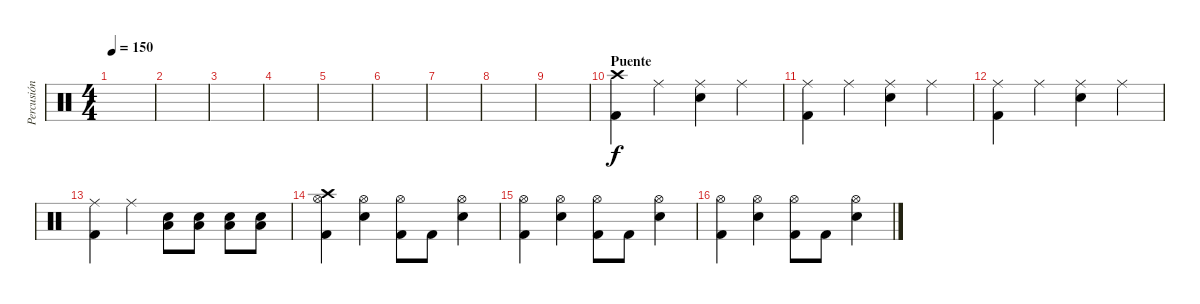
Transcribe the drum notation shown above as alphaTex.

\track ("Percusión" "Percusión") {instrument percussion}
\staff {score}
\articulation defaults
\ts (4 4)
\tempo 150
\clef neutral
\ks c
|
|
|
|
|
|
|
|
|
\section ("" "Puente")
("Crash high (hit)" "Kick (hit) 2").4 "Ride (middle)".4 ("Ride (middle)" "Snare (hit) 2").4 "Ride (middle)".4 |
("Ride (middle)" "Kick (hit) 2").4 "Ride (middle)".4 ("Ride (middle)" "Snare (hit) 2").4 "Ride (middle)".4 |
("Ride (middle)" "Kick (hit) 2").4 "Ride (middle)".4 ("Ride (middle)" "Snare (hit) 2").4 "Ride (middle)".4 |
("Ride (middle)" "Kick (hit) 2").4 "Ride (middle)".4 ("Snare (hit) 2" "Low Floor Tom (hit)").8 ("Snare (hit) 2" "Low Floor Tom (hit)").8 ("Snare (hit) 2" "Low Floor Tom (hit)").8 ("Snare (hit) 2" "Low Floor Tom (hit)").8 |
("Crash high (hit)" "Hi-Hat (open)" "Kick (hit) 2").4 ("Hi-Hat (open)" "Snare (hit) 2").4 ("Hi-Hat (open)" "Kick (hit) 2").8 "Kick (hit) 2".8 ("Hi-Hat (open)" "Snare (hit) 2").4 |
("Hi-Hat (open)" "Kick (hit) 2").4 ("Hi-Hat (open)" "Snare (hit) 2").4 ("Hi-Hat (open)" "Kick (hit) 2").8 "Kick (hit) 2".8 ("Hi-Hat (open)" "Snare (hit) 2").4 |
("Hi-Hat (open)" "Kick (hit) 2").4 ("Hi-Hat (open)" "Snare (hit) 2").4 ("Hi-Hat (open)" "Kick (hit) 2").8 "Kick (hit) 2".8 ("Hi-Hat (open)" "Snare (hit) 2").4
